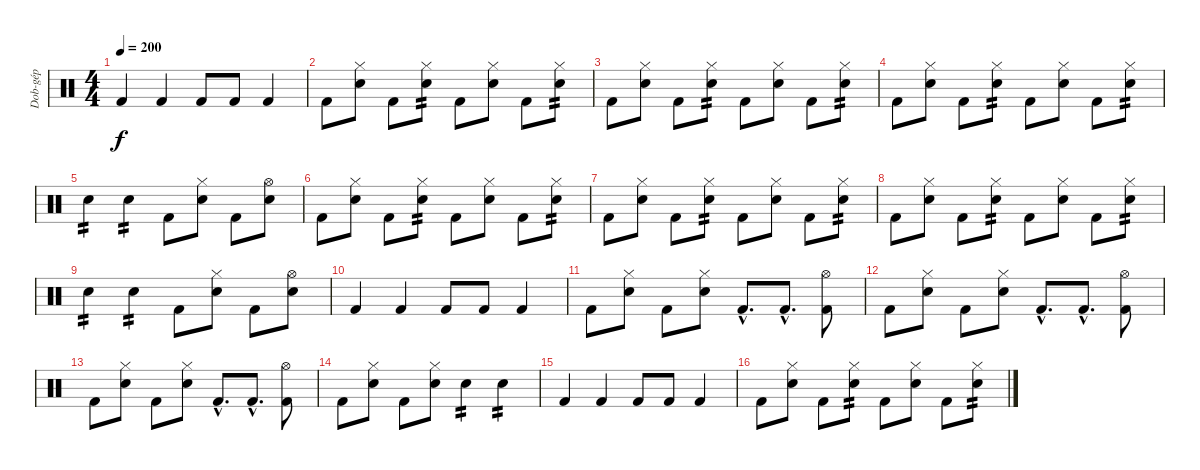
\track ("Dob-gép" "Dob-gép") {instrument percussion}
\staff {score}
\articulation defaults
\ts (4 4)
\tempo 200
\clef neutral
\ks c "Kick (hit) 2".4{dy f} "Kick (hit) 2".4 "Kick (hit) 2".8 "Kick (hit) 2".8 "Kick (hit) 2".4
|
"Kick (hit) 2".8 ("Hi-Hat (closed)" "Snare (hit) 2").8 "Kick (hit) 2".8 ("Hi-Hat (closed)" "Snare (hit) 2").8{tp 2} "Kick (hit) 2".8 ("Hi-Hat (closed)" "Snare (hit) 2").8 "Kick (hit) 2".8 ("Hi-Hat (closed)" "Snare (hit) 2").8{tp 2} |
"Kick (hit) 2".8 ("Hi-Hat (closed)" "Snare (hit) 2").8 "Kick (hit) 2".8 ("Hi-Hat (closed)" "Snare (hit) 2").8{tp 2} "Kick (hit) 2".8 ("Hi-Hat (closed)" "Snare (hit) 2").8 "Kick (hit) 2".8 ("Hi-Hat (closed)" "Snare (hit) 2").8{tp 2} |
"Kick (hit) 2".8 ("Hi-Hat (closed)" "Snare (hit) 2").8 "Kick (hit) 2".8 ("Hi-Hat (closed)" "Snare (hit) 2").8{tp 2} "Kick (hit) 2".8 ("Hi-Hat (closed)" "Snare (hit) 2").8 "Kick (hit) 2".8 ("Hi-Hat (closed)" "Snare (hit) 2").8{tp 2} |
"Snare (hit) 2".4{tp 2} "Snare (hit) 2".4{tp 2} "Kick (hit) 2".8 ("Hi-Hat (closed)" "Snare (hit) 2").8 "Kick (hit) 2".8 ("Hi-Hat (open)" "Snare (hit) 2").8 |
"Kick (hit) 2".8 ("Hi-Hat (closed)" "Snare (hit) 2").8 "Kick (hit) 2".8 ("Hi-Hat (closed)" "Snare (hit) 2").8{tp 2} "Kick (hit) 2".8 ("Hi-Hat (closed)" "Snare (hit) 2").8 "Kick (hit) 2".8 ("Hi-Hat (closed)" "Snare (hit) 2").8{tp 2} |
"Kick (hit) 2".8 ("Hi-Hat (closed)" "Snare (hit) 2").8 "Kick (hit) 2".8 ("Hi-Hat (closed)" "Snare (hit) 2").8{tp 2} "Kick (hit) 2".8 ("Hi-Hat (closed)" "Snare (hit) 2").8 "Kick (hit) 2".8 ("Hi-Hat (closed)" "Snare (hit) 2").8{tp 2} |
"Kick (hit) 2".8 ("Hi-Hat (closed)" "Snare (hit) 2").8 "Kick (hit) 2".8 ("Hi-Hat (closed)" "Snare (hit) 2").8{tp 2} "Kick (hit) 2".8 ("Hi-Hat (closed)" "Snare (hit) 2").8 "Kick (hit) 2".8 ("Hi-Hat (closed)" "Snare (hit) 2").8{tp 2} |
"Snare (hit) 2".4{tp 2} "Snare (hit) 2".4{tp 2} "Kick (hit) 2".8 ("Hi-Hat (closed)" "Snare (hit) 2").8 "Kick (hit) 2".8 ("Hi-Hat (open)" "Snare (hit) 2").8 |
"Kick (hit) 2".4 "Kick (hit) 2".4 "Kick (hit) 2".8 "Kick (hit) 2".8 "Kick (hit) 2".4 |
"Kick (hit) 2".8 ("Hi-Hat (closed)" "Snare (hit) 2").8 "Kick (hit) 2".8 ("Hi-Hat (closed)" "Snare (hit) 2").8 "Kick (hit) 2"{hac}.8{d} "Kick (hit) 2"{hac}.8{d} ("Hi-Hat (open)" "Kick (hit) 2").8 |
"Kick (hit) 2".8 ("Hi-Hat (closed)" "Snare (hit) 2").8 "Kick (hit) 2".8 ("Hi-Hat (closed)" "Snare (hit) 2").8 "Kick (hit) 2"{hac}.8{d} "Kick (hit) 2"{hac}.8{d} ("Hi-Hat (open)" "Kick (hit) 2").8 |
"Kick (hit) 2".8 ("Hi-Hat (closed)" "Snare (hit) 2").8 "Kick (hit) 2".8 ("Hi-Hat (closed)" "Snare (hit) 2").8 "Kick (hit) 2"{hac}.8{d} "Kick (hit) 2"{hac}.8{d} ("Hi-Hat (open)" "Kick (hit) 2").8 |
"Kick (hit) 2".8 ("Hi-Hat (closed)" "Snare (hit) 2").8 "Kick (hit) 2".8 ("Hi-Hat (closed)" "Snare (hit) 2").8 "Snare (hit) 2".4{tp 2} "Snare (hit) 2".4{tp 2} |
"Kick (hit) 2".4 "Kick (hit) 2".4 "Kick (hit) 2".8 "Kick (hit) 2".8 "Kick (hit) 2".4 |
"Kick (hit) 2".8 ("Hi-Hat (closed)" "Snare (hit) 2").8 "Kick (hit) 2".8 ("Hi-Hat (closed)" "Snare (hit) 2").8{tp 2} "Kick (hit) 2".8 ("Hi-Hat (closed)" "Snare (hit) 2").8 "Kick (hit) 2".8 ("Hi-Hat (closed)" "Snare (hit) 2").8{tp 2}
